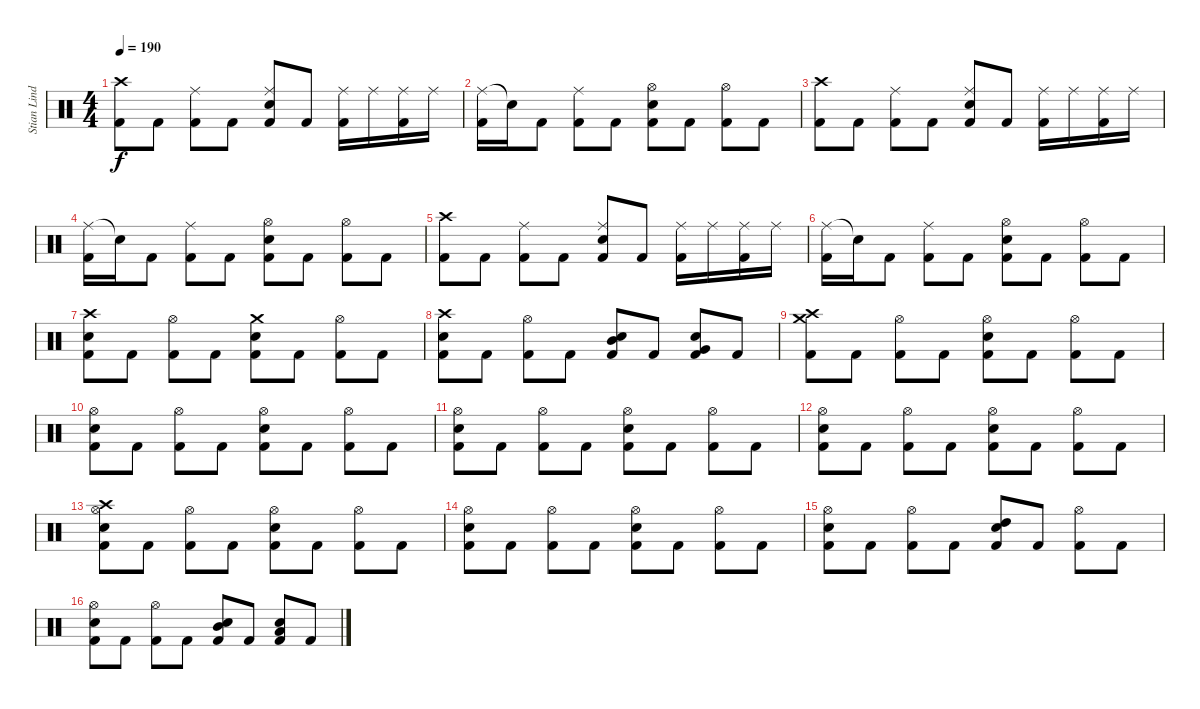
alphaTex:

\track ("Stian Lindaas" "Stian Lind") {instrument percussion}
\staff {score}
\articulation defaults
\ts (4 4)
\section ("" "")
\tempo 190
\clef neutral
\ks c
("Crash high (hit)" "Kick (hit) 2").8{dy f} "Kick (hit) 2".8 ("Ride (middle)" "Kick (hit) 2").8 "Kick (hit) 2".8 ("Ride (middle)" "Electric Snare (hit)" "Kick (hit) 2").8 "Kick (hit) 2".8 ("Ride (middle)" "Kick (hit) 2").16 "Ride (middle)".16 ("Ride (middle)" "Kick (hit) 2").16 "Ride (middle)".16 |
("Ride (middle)" "Kick (hit) 2").16 "Snare (hit)"{t}.16 "Kick (hit) 2".8 ("Ride (middle)" "Kick (hit) 2").8 "Kick (hit) 2".8 ("Hi-Hat (open)" "Electric Snare (hit)" "Kick (hit) 2").8 "Kick (hit) 2".8 ("Hi-Hat (open)" "Kick (hit) 2").8 "Kick (hit) 2".8 |
("Crash high (hit)" "Kick (hit) 2").8 "Kick (hit) 2".8 ("Ride (middle)" "Kick (hit) 2").8 "Kick (hit) 2".8 ("Ride (middle)" "Electric Snare (hit)" "Kick (hit) 2").8 "Kick (hit) 2".8 ("Ride (middle)" "Kick (hit) 2").16 "Ride (middle)".16 ("Ride (middle)" "Kick (hit) 2").16 "Ride (middle)".16 |
("Ride (middle)" "Kick (hit) 2").16 "Snare (hit)"{t}.16 "Kick (hit) 2".8 ("Ride (middle)" "Kick (hit) 2").8 "Kick (hit) 2".8 ("Hi-Hat (open)" "Electric Snare (hit)" "Kick (hit) 2").8 "Kick (hit) 2".8 ("Hi-Hat (open)" "Kick (hit) 2").8 "Kick (hit) 2".8 |
("Crash high (hit)" "Kick (hit) 2").8 "Kick (hit) 2".8 ("Ride (middle)" "Kick (hit) 2").8 "Kick (hit) 2".8 ("Ride (middle)" "Electric Snare (hit)" "Kick (hit) 2").8 "Kick (hit) 2".8 ("Ride (middle)" "Kick (hit) 2").16 "Ride (middle)".16 ("Ride (middle)" "Kick (hit) 2").16 "Ride (middle)".16 |
("Ride (middle)" "Kick (hit) 2").16 "Snare (hit)"{t}.16 "Kick (hit) 2".8 ("Ride (middle)" "Kick (hit) 2").8 "Kick (hit) 2".8 ("Hi-Hat (open)" "Electric Snare (hit)" "Kick (hit) 2").8 "Kick (hit) 2".8 ("Hi-Hat (open)" "Kick (hit) 2").8 "Kick (hit) 2".8 |
("Crash high (hit)" "Electric Snare (hit)" "Kick (hit) 2").8 "Kick (hit) 2".8 ("Hi-Hat (open)" "Kick (hit) 2").8 "Kick (hit) 2".8 ("Crash medium (hit)" "Electric Snare (hit)" "Kick (hit) 2").8 "Kick (hit) 2".8 ("Hi-Hat (open)" "Kick (hit) 2").8 "Kick (hit) 2".8 |
("Crash high (hit)" "Electric Snare (hit)" "Kick (hit) 2").8 "Kick (hit) 2".8 ("Hi-Hat (open)" "Kick (hit) 2").8 "Kick (hit) 2".8 ("Electric Snare (hit)" "Mid Tom (hit)" "Kick (hit) 2").8 "Kick (hit) 2".8 ("Electric Snare (hit)" "Very Low Tom (hit)" "Kick (hit) 2").8 "Kick (hit) 2".8 |
\section ("" "")
("Crash high (hit)" "Crash medium (hit)" "Kick (hit) 2").8 "Kick (hit) 2".8 ("Hi-Hat (open)" "Kick (hit) 2").8 "Kick (hit) 2".8 ("Hi-Hat (open)" "Electric Snare (hit)" "Kick (hit) 2").8 "Kick (hit) 2".8 ("Hi-Hat (open)" "Kick (hit) 2").8 "Kick (hit) 2".8 |
("Hi-Hat (open)" "Electric Snare (hit)" "Kick (hit) 2").8 "Kick (hit) 2".8 ("Hi-Hat (open)" "Kick (hit) 2").8 "Kick (hit) 2".8 ("Hi-Hat (open)" "Electric Snare (hit)" "Kick (hit) 2").8 "Kick (hit) 2".8 ("Hi-Hat (open)" "Kick (hit) 2").8 "Kick (hit) 2".8 |
("Hi-Hat (open)" "Electric Snare (hit)" "Kick (hit) 2").8 "Kick (hit) 2".8 ("Hi-Hat (open)" "Kick (hit) 2").8 "Kick (hit) 2".8 ("Hi-Hat (open)" "Electric Snare (hit)" "Kick (hit) 2").8 "Kick (hit) 2".8 ("Hi-Hat (open)" "Kick (hit) 2").8 "Kick (hit) 2".8 |
("Hi-Hat (open)" "Electric Snare (hit)" "Kick (hit) 2").8 "Kick (hit) 2".8 ("Hi-Hat (open)" "Kick (hit) 2").8 "Kick (hit) 2".8 ("Hi-Hat (open)" "Electric Snare (hit)" "Kick (hit) 2").8 "Kick (hit) 2".8 ("Hi-Hat (open)" "Kick (hit) 2").8 "Kick (hit) 2".8 |
("Crash high (hit)" "Hi-Hat (open)" "Electric Snare (hit)" "Kick (hit) 2").8 "Kick (hit) 2".8 ("Hi-Hat (open)" "Kick (hit) 2").8 "Kick (hit) 2".8 ("Hi-Hat (open)" "Electric Snare (hit)" "Kick (hit) 2").8 "Kick (hit) 2".8 ("Hi-Hat (open)" "Kick (hit) 2").8 "Kick (hit) 2".8 |
("Hi-Hat (open)" "Electric Snare (hit)" "Kick (hit) 2").8 "Kick (hit) 2".8 ("Hi-Hat (open)" "Kick (hit) 2").8 "Kick (hit) 2".8 ("Hi-Hat (open)" "Electric Snare (hit)" "Kick (hit) 2").8 "Kick (hit) 2".8 ("Hi-Hat (open)" "Kick (hit) 2").8 "Kick (hit) 2".8 |
("Hi-Hat (open)" "Electric Snare (hit)" "Kick (hit) 2").8 "Kick (hit) 2".8 ("Hi-Hat (open)" "Kick (hit) 2").8 "Kick (hit) 2".8 ("High Tom (hit)" "Electric Snare (hit)" "Kick (hit) 2").8 "Kick (hit) 2".8 ("Hi-Hat (open)" "Kick (hit) 2").8 "Kick (hit) 2".8 |
("Hi-Hat (open)" "Electric Snare (hit)" "Kick (hit) 2").8 "Kick (hit) 2".8 ("Hi-Hat (open)" "Kick (hit) 2").8 "Kick (hit) 2".8 ("Electric Snare (hit)" "Mid Tom (hit)" "Kick (hit) 2").8 "Kick (hit) 2".8 ("Electric Snare (hit)" "Low Tom (hit)" "Kick (hit) 2").8 "Kick (hit) 2".8
